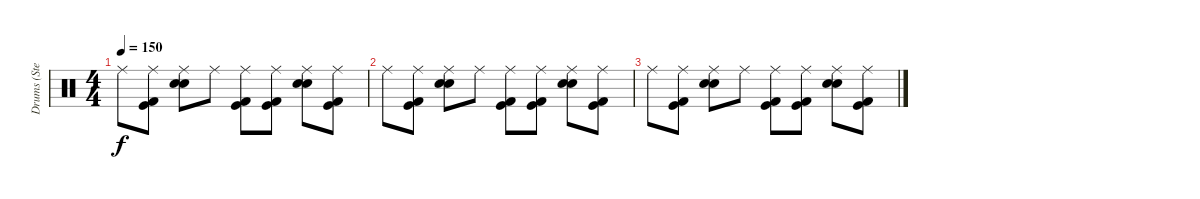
\track ("Drums (Steven)" "Drums (Ste") {instrument percussion}
\staff {score}
\articulation defaults
\ts (4 4)
\tempo 150
\clef neutral
\ks c "Ride (middle)".8{dy f}
("Kick (hit) 2" "Kick (hit)" "Ride (middle)").8 ("Electric Snare (hit)" "Snare (hit) 2" "Ride (middle)").8 "Ride (middle)".8 ("Kick (hit) 2" "Kick (hit)" "Ride (middle)").8 ("Kick (hit) 2" "Kick (hit)" "Ride (middle)").8 ("Electric Snare (hit)" "Snare (hit) 2" "Ride (middle)").8 ("Kick (hit) 2" "Kick (hit)" "Ride (middle)").8 |
"Ride (middle)".8 ("Kick (hit) 2" "Kick (hit)" "Ride (middle)").8 ("Electric Snare (hit)" "Snare (hit) 2" "Ride (middle)").8 "Ride (middle)".8 ("Kick (hit) 2" "Kick (hit)" "Ride (middle)").8 ("Kick (hit) 2" "Kick (hit)" "Ride (middle)").8 ("Electric Snare (hit)" "Snare (hit) 2" "Ride (middle)").8 ("Kick (hit) 2" "Kick (hit)" "Ride (middle)").8 |
"Ride (middle)".8 ("Kick (hit) 2" "Kick (hit)" "Ride (middle)").8 ("Electric Snare (hit)" "Snare (hit) 2" "Ride (middle)").8 "Ride (middle)".8 ("Kick (hit) 2" "Kick (hit)" "Ride (middle)").8 ("Kick (hit) 2" "Kick (hit)" "Ride (middle)").8 ("Electric Snare (hit)" "Snare (hit) 2" "Ride (middle)").8 ("Kick (hit) 2" "Kick (hit)" "Ride (middle)").8
